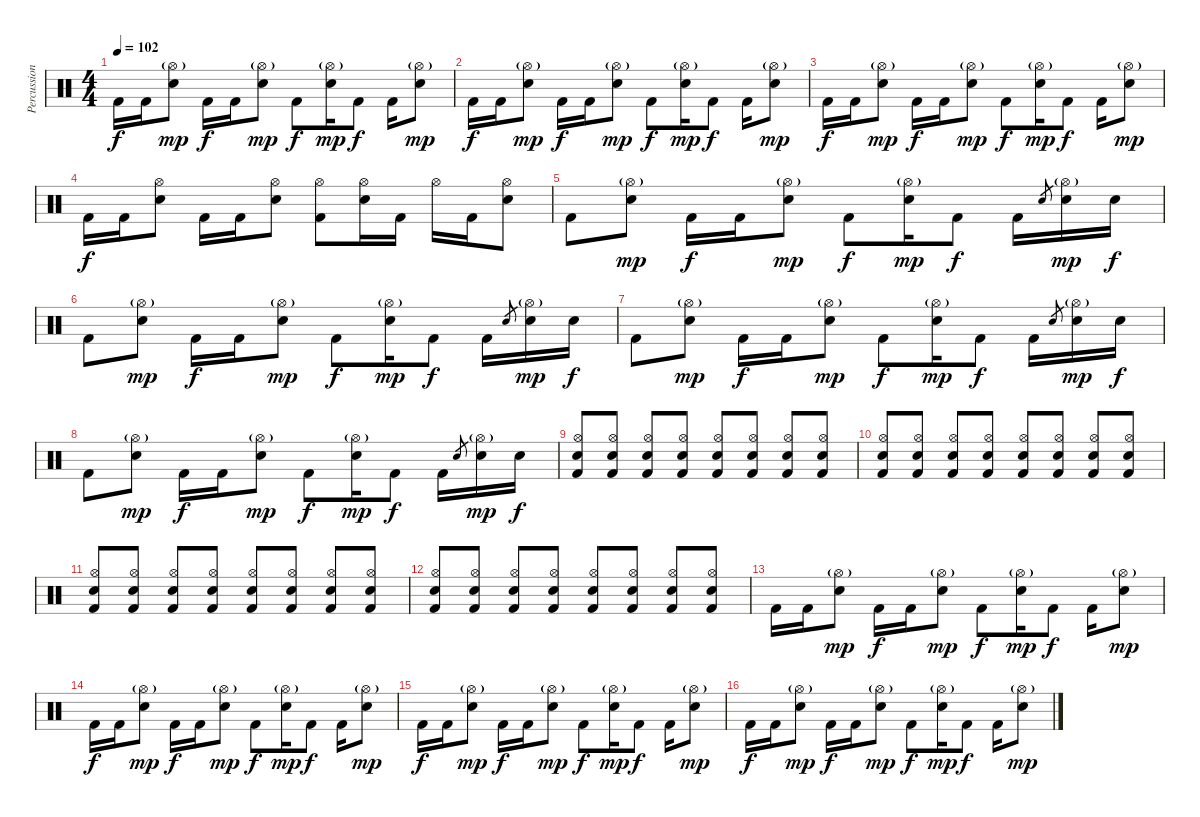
\track ("Percussion" "Percussion") {instrument percussion}
\staff {score}
\articulation defaults
\ts (4 4)
\tempo 102
\clef neutral
\ks c "Kick (hit) 2".16{dy f} "Kick (hit) 2".16
("Hi-Hat (open)"{g} "Snare (hit) 2").8{dy mp} "Kick (hit) 2".16{dy f} "Kick (hit) 2".16 ("Hi-Hat (open)"{g} "Snare (hit) 2").8{dy mp} "Kick (hit) 2".8{dy f} ("Hi-Hat (open)"{g} "Snare (hit) 2").16{dy mp} "Kick (hit) 2".8{dy f} "Kick (hit) 2".16 ("Hi-Hat (open)"{g} "Snare (hit) 2").8{dy mp} |
"Kick (hit) 2".16{dy f} "Kick (hit) 2".16 ("Hi-Hat (open)"{g} "Snare (hit) 2").8{dy mp} "Kick (hit) 2".16{dy f} "Kick (hit) 2".16 ("Hi-Hat (open)"{g} "Snare (hit) 2").8{dy mp} "Kick (hit) 2".8{dy f} ("Hi-Hat (open)"{g} "Snare (hit) 2").16{dy mp} "Kick (hit) 2".8{dy f} "Kick (hit) 2".16 ("Hi-Hat (open)"{g} "Snare (hit) 2").8{dy mp} |
"Kick (hit) 2".16{dy f} "Kick (hit) 2".16 ("Hi-Hat (open)"{g} "Snare (hit) 2").8{dy mp} "Kick (hit) 2".16{dy f} "Kick (hit) 2".16 ("Hi-Hat (open)"{g} "Snare (hit) 2").8{dy mp} "Kick (hit) 2".8{dy f} ("Hi-Hat (open)"{g} "Snare (hit) 2").16{dy mp} "Kick (hit) 2".8{dy f} "Kick (hit) 2".16 ("Hi-Hat (open)"{g} "Snare (hit) 2").8{dy mp} |
"Kick (hit) 2".16{dy f} "Kick (hit) 2".16 ("Hi-Hat (open)" "Snare (hit) 2").8 "Kick (hit) 2".16 "Kick (hit) 2".16 ("Hi-Hat (open)" "Snare (hit) 2").8 ("Hi-Hat (open)" "Kick (hit) 2").8 ("Hi-Hat (open)" "Snare (hit) 2").16 "Kick (hit) 2".16 "Hi-Hat (open)".16 "Kick (hit) 2".16 ("Hi-Hat (open)" "Snare (hit) 2").8 |
"Kick (hit) 2".8 ("Hi-Hat (open)"{g} "Snare (hit) 2").8{dy mp} "Kick (hit) 2".16{dy f} "Kick (hit) 2".16 ("Hi-Hat (open)"{g} "Snare (hit) 2").8{dy mp} "Kick (hit) 2".8{dy f} ("Hi-Hat (open)"{g} "Snare (hit) 2").16{dy mp} "Kick (hit) 2".8{dy f} "Kick (hit) 2".16 "Snare (hit) 2".8{gr} ("Hi-Hat (open)"{g} "Snare (hit) 2").16{dy mp} "Snare (hit) 2".16{dy f} |
"Kick (hit) 2".8 ("Hi-Hat (open)"{g} "Snare (hit) 2").8{dy mp} "Kick (hit) 2".16{dy f} "Kick (hit) 2".16 ("Hi-Hat (open)"{g} "Snare (hit) 2").8{dy mp} "Kick (hit) 2".8{dy f} ("Hi-Hat (open)"{g} "Snare (hit) 2").16{dy mp} "Kick (hit) 2".8{dy f} "Kick (hit) 2".16 "Snare (hit) 2".8{gr} ("Hi-Hat (open)"{g} "Snare (hit) 2").16{dy mp} "Snare (hit) 2".16{dy f} |
"Kick (hit) 2".8 ("Hi-Hat (open)"{g} "Snare (hit) 2").8{dy mp} "Kick (hit) 2".16{dy f} "Kick (hit) 2".16 ("Hi-Hat (open)"{g} "Snare (hit) 2").8{dy mp} "Kick (hit) 2".8{dy f} ("Hi-Hat (open)"{g} "Snare (hit) 2").16{dy mp} "Kick (hit) 2".8{dy f} "Kick (hit) 2".16 "Snare (hit) 2".8{gr} ("Hi-Hat (open)"{g} "Snare (hit) 2").16{dy mp} "Snare (hit) 2".16{dy f} |
"Kick (hit) 2".8 ("Hi-Hat (open)"{g} "Snare (hit) 2").8{dy mp} "Kick (hit) 2".16{dy f} "Kick (hit) 2".16 ("Hi-Hat (open)"{g} "Snare (hit) 2").8{dy mp} "Kick (hit) 2".8{dy f} ("Hi-Hat (open)"{g} "Snare (hit) 2").16{dy mp} "Kick (hit) 2".8{dy f} "Kick (hit) 2".16 "Snare (hit) 2".8{gr} ("Hi-Hat (open)"{g} "Snare (hit) 2").16{dy mp} "Snare (hit) 2".16{dy f} |
("Hi-Hat (open)" "Snare (hit) 2" "Kick (hit) 2").8 ("Hi-Hat (open)" "Snare (hit) 2" "Kick (hit) 2").8 ("Hi-Hat (open)" "Snare (hit) 2" "Kick (hit) 2").8 ("Hi-Hat (open)" "Snare (hit) 2" "Kick (hit) 2").8 ("Hi-Hat (open)" "Snare (hit) 2" "Kick (hit) 2").8 ("Hi-Hat (open)" "Snare (hit) 2" "Kick (hit) 2").8 ("Hi-Hat (open)" "Snare (hit) 2" "Kick (hit) 2").8 ("Hi-Hat (open)" "Snare (hit) 2" "Kick (hit) 2").8 |
("Hi-Hat (open)" "Snare (hit) 2" "Kick (hit) 2").8 ("Hi-Hat (open)" "Snare (hit) 2" "Kick (hit) 2").8 ("Hi-Hat (open)" "Snare (hit) 2" "Kick (hit) 2").8 ("Hi-Hat (open)" "Snare (hit) 2" "Kick (hit) 2").8 ("Hi-Hat (open)" "Snare (hit) 2" "Kick (hit) 2").8 ("Hi-Hat (open)" "Snare (hit) 2" "Kick (hit) 2").8 ("Hi-Hat (open)" "Snare (hit) 2" "Kick (hit) 2").8 ("Hi-Hat (open)" "Snare (hit) 2" "Kick (hit) 2").8 |
("Hi-Hat (open)" "Snare (hit) 2" "Kick (hit) 2").8 ("Hi-Hat (open)" "Snare (hit) 2" "Kick (hit) 2").8 ("Hi-Hat (open)" "Snare (hit) 2" "Kick (hit) 2").8 ("Hi-Hat (open)" "Snare (hit) 2" "Kick (hit) 2").8 ("Hi-Hat (open)" "Snare (hit) 2" "Kick (hit) 2").8 ("Hi-Hat (open)" "Snare (hit) 2" "Kick (hit) 2").8 ("Hi-Hat (open)" "Snare (hit) 2" "Kick (hit) 2").8 ("Hi-Hat (open)" "Snare (hit) 2" "Kick (hit) 2").8 |
("Hi-Hat (open)" "Snare (hit) 2" "Kick (hit) 2").8 ("Hi-Hat (open)" "Snare (hit) 2" "Kick (hit) 2").8 ("Hi-Hat (open)" "Snare (hit) 2" "Kick (hit) 2").8 ("Hi-Hat (open)" "Snare (hit) 2" "Kick (hit) 2").8 ("Hi-Hat (open)" "Snare (hit) 2" "Kick (hit) 2").8 ("Hi-Hat (open)" "Snare (hit) 2" "Kick (hit) 2").8 ("Hi-Hat (open)" "Snare (hit) 2" "Kick (hit) 2").8 ("Hi-Hat (open)" "Snare (hit) 2" "Kick (hit) 2").8 |
"Kick (hit) 2".16 "Kick (hit) 2".16 ("Hi-Hat (open)"{g} "Snare (hit) 2").8{dy mp} "Kick (hit) 2".16{dy f} "Kick (hit) 2".16 ("Hi-Hat (open)"{g} "Snare (hit) 2").8{dy mp} "Kick (hit) 2".8{dy f} ("Hi-Hat (open)"{g} "Snare (hit) 2").16{dy mp} "Kick (hit) 2".8{dy f} "Kick (hit) 2".16 ("Hi-Hat (open)"{g} "Snare (hit) 2").8{dy mp} |
"Kick (hit) 2".16{dy f} "Kick (hit) 2".16 ("Hi-Hat (open)"{g} "Snare (hit) 2").8{dy mp} "Kick (hit) 2".16{dy f} "Kick (hit) 2".16 ("Hi-Hat (open)"{g} "Snare (hit) 2").8{dy mp} "Kick (hit) 2".8{dy f} ("Hi-Hat (open)"{g} "Snare (hit) 2").16{dy mp} "Kick (hit) 2".8{dy f} "Kick (hit) 2".16 ("Hi-Hat (open)"{g} "Snare (hit) 2").8{dy mp} |
"Kick (hit) 2".16{dy f} "Kick (hit) 2".16 ("Hi-Hat (open)"{g} "Snare (hit) 2").8{dy mp} "Kick (hit) 2".16{dy f} "Kick (hit) 2".16 ("Hi-Hat (open)"{g} "Snare (hit) 2").8{dy mp} "Kick (hit) 2".8{dy f} ("Hi-Hat (open)"{g} "Snare (hit) 2").16{dy mp} "Kick (hit) 2".8{dy f} "Kick (hit) 2".16 ("Hi-Hat (open)"{g} "Snare (hit) 2").8{dy mp} |
"Kick (hit) 2".16{dy f} "Kick (hit) 2".16 ("Hi-Hat (open)"{g} "Snare (hit) 2").8{dy mp} "Kick (hit) 2".16{dy f} "Kick (hit) 2".16 ("Hi-Hat (open)"{g} "Snare (hit) 2").8{dy mp} "Kick (hit) 2".8{dy f} ("Hi-Hat (open)"{g} "Snare (hit) 2").16{dy mp} "Kick (hit) 2".8{dy f} "Kick (hit) 2".16 ("Hi-Hat (open)"{g} "Snare (hit) 2").8{dy mp}
